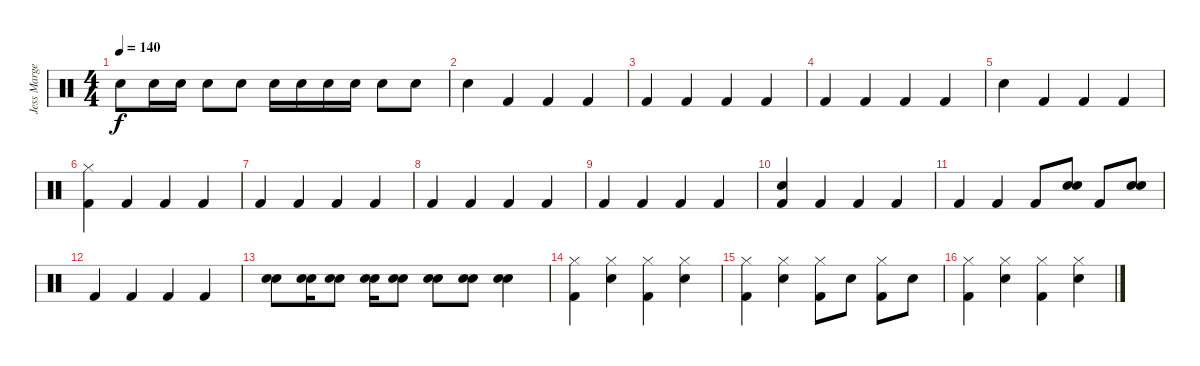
\track ("Jess Margera" "Jess Marge") {instrument percussion}
\staff {score}
\articulation defaults
\ts (4 4)
\tempo 140
\clef neutral
\ks c "Electric Snare (hit)".8{dy f} "Electric Snare (hit)".16 "Electric Snare (hit)".16 "Electric Snare (hit)".8 "Electric Snare (hit)".8 "Electric Snare (hit)".16 "Electric Snare (hit)".16 "Electric Snare (hit)".16 "Electric Snare (hit)".16 "Electric Snare (hit)".8 "Electric Snare (hit)".8
|
"Electric Snare (hit)".4 "Kick (hit) 2".4 "Kick (hit) 2".4 "Kick (hit) 2".4 |
"Kick (hit) 2".4 "Kick (hit) 2".4 "Kick (hit) 2".4 "Kick (hit) 2".4 |
"Kick (hit) 2".4 "Kick (hit) 2".4 "Kick (hit) 2".4 "Kick (hit) 2".4 |
"Electric Snare (hit)".4 "Kick (hit) 2".4 "Kick (hit) 2".4 "Kick (hit) 2".4 |
("Hi-Hat (closed)" "Kick (hit) 2").4 "Kick (hit) 2".4 "Kick (hit) 2".4 "Kick (hit) 2".4 |
"Kick (hit) 2".4 "Kick (hit) 2".4 "Kick (hit) 2".4 "Kick (hit) 2".4 |
"Kick (hit) 2".4 "Kick (hit) 2".4 "Kick (hit) 2".4 "Kick (hit) 2".4 |
"Kick (hit) 2".4 "Kick (hit) 2".4 "Kick (hit) 2".4 "Kick (hit) 2".4 |
("Electric Snare (hit)" "Kick (hit) 2").4 "Kick (hit) 2".4 "Kick (hit) 2".4 "Kick (hit) 2".4 |
"Kick (hit) 2".4 "Kick (hit) 2".4 "Kick (hit) 2".8 ("Electric Snare (hit)" "Electric Snare (hit)").8 "Kick (hit) 2".8 ("Electric Snare (hit)" "Electric Snare (hit)").8 |
"Kick (hit) 2".4 "Kick (hit) 2".4 "Kick (hit) 2".4 "Kick (hit) 2".4 |
("Electric Snare (hit)" "Electric Snare (hit)").8 ("Electric Snare (hit)" "Electric Snare (hit)").16 ("Electric Snare (hit)" "Electric Snare (hit)").8 ("Electric Snare (hit)" "Electric Snare (hit)").16 ("Electric Snare (hit)" "Electric Snare (hit)").8 ("Electric Snare (hit)" "Electric Snare (hit)").8 ("Electric Snare (hit)" "Electric Snare (hit)").8 ("Electric Snare (hit)" "Electric Snare (hit)").4 |
("Hi-Hat (closed)" "Kick (hit) 2").4 ("Hi-Hat (closed)" "Electric Snare (hit)").4 ("Hi-Hat (closed)" "Kick (hit) 2").4 ("Hi-Hat (closed)" "Electric Snare (hit)").4 |
("Hi-Hat (closed)" "Kick (hit) 2").4 ("Hi-Hat (closed)" "Electric Snare (hit)").4 ("Hi-Hat (closed)" "Kick (hit) 2").8 "Electric Snare (hit)".8 ("Hi-Hat (closed)" "Kick (hit) 2").8 "Electric Snare (hit)".8 |
("Hi-Hat (closed)" "Kick (hit) 2").4 ("Hi-Hat (closed)" "Electric Snare (hit)").4 ("Hi-Hat (closed)" "Kick (hit) 2").4 ("Hi-Hat (closed)" "Electric Snare (hit)").4
